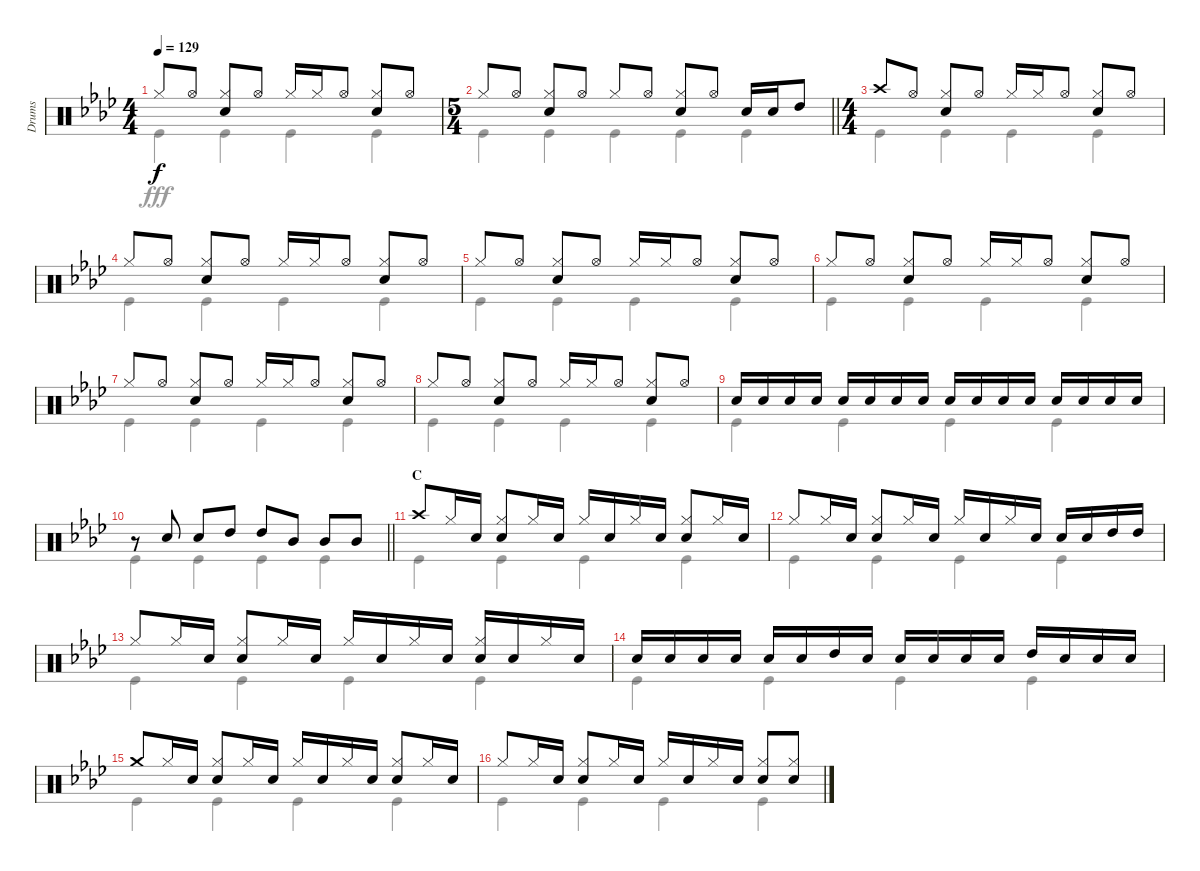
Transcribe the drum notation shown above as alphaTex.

\track ("Drums" "Drums") {instrument percussion}
\staff {score}
\articulation defaults
\voice
\ts (4 4)
\tempo 129
\clef neutral
\ks ab "Hi-Hat (closed)".8{dy f} "Hi-Hat (open)".8
("Hi-Hat (closed)" "Snare (hit) 2").8 "Hi-Hat (open)".8 "Hi-Hat (closed)".16 "Hi-Hat (closed)".16 "Hi-Hat (open)".8 ("Hi-Hat (closed)" "Snare (hit) 2").8 "Hi-Hat (open)".8 |
\ts (5 4)
\barLineRight lightlight "Hi-Hat (closed)".8 "Hi-Hat (open)".8{beam split}
("Hi-Hat (closed)" "Snare (hit) 2").8 "Hi-Hat (open)".8{beam split} "Hi-Hat (closed)".8{beam merge} "Hi-Hat (open)".8 ("Hi-Hat (closed)" "Snare (hit) 2").8 "Hi-Hat (open)".8 "Snare (hit) 2".16 "Snare (hit) 2".16 "High Tom (hit)".8 |
\ts (4 4)
"Crash high (hit)".8 "Hi-Hat (open)".8 ("Hi-Hat (closed)" "Snare (hit) 2").8 "Hi-Hat (open)".8 "Hi-Hat (closed)".16 "Hi-Hat (closed)".16 "Hi-Hat (open)".8 ("Hi-Hat (closed)" "Snare (hit) 2").8 "Hi-Hat (open)".8 |
"Hi-Hat (closed)".8 "Hi-Hat (open)".8 ("Hi-Hat (closed)" "Snare (hit) 2").8 "Hi-Hat (open)".8 "Hi-Hat (closed)".16 "Hi-Hat (closed)".16 "Hi-Hat (open)".8 ("Hi-Hat (closed)" "Snare (hit) 2").8 "Hi-Hat (open)".8 |
"Hi-Hat (closed)".8 "Hi-Hat (open)".8 ("Hi-Hat (closed)" "Snare (hit) 2").8 "Hi-Hat (open)".8 "Hi-Hat (closed)".16 "Hi-Hat (closed)".16 "Hi-Hat (open)".8 ("Hi-Hat (closed)" "Snare (hit) 2").8 "Hi-Hat (open)".8 |
"Hi-Hat (closed)".8 "Hi-Hat (open)".8 ("Hi-Hat (closed)" "Snare (hit) 2").8 "Hi-Hat (open)".8 "Hi-Hat (closed)".16 "Hi-Hat (closed)".16 "Hi-Hat (open)".8 ("Hi-Hat (closed)" "Snare (hit) 2").8 "Hi-Hat (open)".8 |
"Hi-Hat (closed)".8 "Hi-Hat (open)".8 ("Hi-Hat (closed)" "Snare (hit) 2").8 "Hi-Hat (open)".8 "Hi-Hat (closed)".16 "Hi-Hat (closed)".16 "Hi-Hat (open)".8 ("Hi-Hat (closed)" "Snare (hit) 2").8 "Hi-Hat (open)".8 |
"Hi-Hat (closed)".8 "Hi-Hat (open)".8 ("Hi-Hat (closed)" "Snare (hit) 2").8 "Hi-Hat (open)".8 "Hi-Hat (closed)".16 "Hi-Hat (closed)".16 "Hi-Hat (open)".8 ("Hi-Hat (closed)" "Snare (hit) 2").8 "Hi-Hat (open)".8 |
"Snare (hit) 2".16 "Snare (hit) 2".16 "Snare (hit) 2".16 "Snare (hit) 2".16 "Snare (hit) 2".16 "Snare (hit) 2".16 "Snare (hit) 2".16 "Snare (hit) 2".16 "Snare (hit) 2".16 "Snare (hit) 2".16 "Snare (hit) 2".16 "Snare (hit) 2".16 "Snare (hit) 2".16 "Snare (hit) 2".16 "Snare (hit) 2".16 "Snare (hit) 2".16 |
\barLineRight lightlight
r.8 "Snare (hit) 2".8 "Snare (hit) 2".8 "High Tom (hit)".8 "High Tom (hit)".8 "Mid Tom (hit)".8 "Mid Tom (hit)".8 "Mid Tom (hit)".8 |
\section ("" "C")
"Crash high (hit)".8 "Hi-Hat (closed)".16 "Snare (hit) 2".16 ("Hi-Hat (closed)" "Snare (hit) 2").8 "Hi-Hat (closed)".16 "Snare (hit) 2".16 "Hi-Hat (closed)".16 "Snare (hit) 2".16 "Hi-Hat (closed)".16 "Snare (hit) 2".16 ("Hi-Hat (closed)" "Snare (hit) 2").8 "Hi-Hat (closed)".16 "Snare (hit) 2".16 |
"Hi-Hat (closed)".8 "Hi-Hat (closed)".16 "Snare (hit) 2".16 ("Hi-Hat (closed)" "Snare (hit) 2").8 "Hi-Hat (closed)".16 "Snare (hit) 2".16 "Hi-Hat (closed)".16 "Snare (hit) 2".16 "Hi-Hat (closed)".16 "Snare (hit) 2".16 "Snare (hit) 2".16 "Snare (hit) 2".16 "High Tom (hit)".16 "High Tom (hit)".16 |
"Hi-Hat (closed)".8 "Hi-Hat (closed)".16 "Snare (hit) 2".16 ("Hi-Hat (closed)" "Snare (hit) 2").8 "Hi-Hat (closed)".16 "Snare (hit) 2".16 "Hi-Hat (closed)".16 "Snare (hit) 2".16 "Hi-Hat (closed)".16 "Snare (hit) 2".16 ("Hi-Hat (closed)" "Snare (hit) 2").16 "Snare (hit) 2".16 "Hi-Hat (closed)".16 "Snare (hit) 2".16 |
"Snare (hit) 2".16 "Snare (hit) 2".16 "Snare (hit) 2".16 "Snare (hit) 2".16 "Snare (hit) 2".16 "Snare (hit) 2".16 "High Tom (hit)".16 "Snare (hit) 2".16 "Snare (hit) 2".16 "Snare (hit) 2".16 "Snare (hit) 2".16 "Snare (hit) 2".16 "High Tom (hit)".16 "Snare (hit) 2".16 "Snare (hit) 2".16 "Snare (hit) 2".16 |
"Crash medium (hit)".8 "Hi-Hat (closed)".16 "Snare (hit) 2".16 ("Hi-Hat (closed)" "Snare (hit) 2").8 "Hi-Hat (closed)".16 "Snare (hit) 2".16 "Hi-Hat (closed)".16 "Snare (hit) 2".16 "Hi-Hat (closed)".16 "Snare (hit) 2".16 ("Hi-Hat (closed)" "Snare (hit) 2").8 "Hi-Hat (closed)".16 "Snare (hit) 2".16 |
"Hi-Hat (closed)".8 "Hi-Hat (closed)".16 "Snare (hit) 2".16 ("Hi-Hat (closed)" "Snare (hit) 2").8 "Hi-Hat (closed)".16 "Snare (hit) 2".16 "Hi-Hat (closed)".16 "Snare (hit) 2".16 "Hi-Hat (closed)".16 "Snare (hit) 2".16 ("Hi-Hat (closed)" "Snare (hit) 2").8 ("Hi-Hat (closed)" "Snare (hit) 2").8
\voice
\clef neutral
\ottava regular
\simile none
\ks ab "Kick (hit)".4{dy fff} "Kick (hit)".4 "Kick (hit)".4 "Kick (hit)".4
|
\barLineRight lightlight "Kick (hit)".4 "Kick (hit)".4 "Kick (hit)".4 "Kick (hit)".4 "Kick (hit)".4
|
"Kick (hit)".4 "Kick (hit)".4 "Kick (hit)".4 "Kick (hit)".4 |
"Kick (hit)".4 "Kick (hit)".4 "Kick (hit)".4 "Kick (hit)".4 |
"Kick (hit)".4 "Kick (hit)".4 "Kick (hit)".4 "Kick (hit)".4 |
"Kick (hit)".4 "Kick (hit)".4 "Kick (hit)".4 "Kick (hit)".4 |
"Kick (hit)".4 "Kick (hit)".4 "Kick (hit)".4 "Kick (hit)".4 |
"Kick (hit)".4 "Kick (hit)".4 "Kick (hit)".4 "Kick (hit)".4 |
"Kick (hit)".4 "Kick (hit)".4 "Kick (hit)".4 "Kick (hit)".4 |
\barLineRight lightlight "Kick (hit)".4 "Kick (hit)".4 "Kick (hit)".4 "Kick (hit)".4
|
"Kick (hit)".4 "Kick (hit)".4 "Kick (hit)".4 "Kick (hit)".4 |
"Kick (hit)".4 "Kick (hit)".4 "Kick (hit)".4 "Kick (hit)".4 |
"Kick (hit)".4 "Kick (hit)".4 "Kick (hit)".4 "Kick (hit)".4 |
"Kick (hit)".4 "Kick (hit)".4 "Kick (hit)".4 "Kick (hit)".4 |
"Kick (hit)".4 "Kick (hit)".4 "Kick (hit)".4 "Kick (hit)".4 |
"Kick (hit)".4 "Kick (hit)".4 "Kick (hit)".4 "Kick (hit)".4
